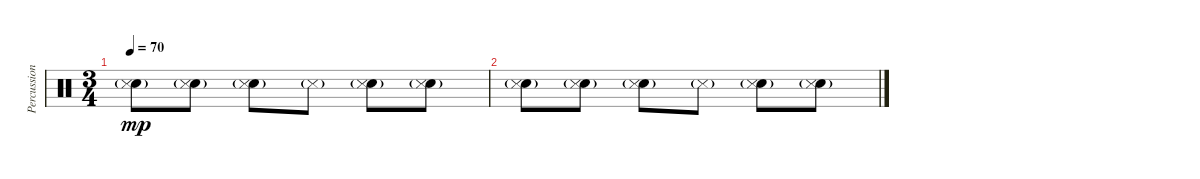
\track ("Percussion" "Percussion") {instrument percussion}
\staff {score}
\articulation defaults
\ts (3 4)
\tempo 70
\clef neutral
\ks c
("Snare (hit) 2"{g} "Snare (side stick) 3"{g}).8{dy mp} ("Snare (hit) 2"{g} "Snare (side stick) 3"{g}).8 ("Snare (hit) 2"{g} "Snare (side stick) 3"{g}).8 "Snare (side stick) 3"{g}.8 ("Snare (hit) 2"{g} "Snare (side stick) 3"{g}).8 ("Snare (hit) 2"{g} "Snare (side stick) 3"{g}).8 |
("Snare (hit) 2"{g} "Snare (side stick) 3"{g}).8 ("Snare (hit) 2"{g} "Snare (side stick) 3"{g}).8 ("Snare (hit) 2"{g} "Snare (side stick) 3"{g}).8 "Snare (side stick) 3"{g}.8 ("Snare (hit) 2"{g} "Snare (side stick) 3"{g}).8 ("Snare (hit) 2"{g} "Snare (side stick) 3"{g}).8
